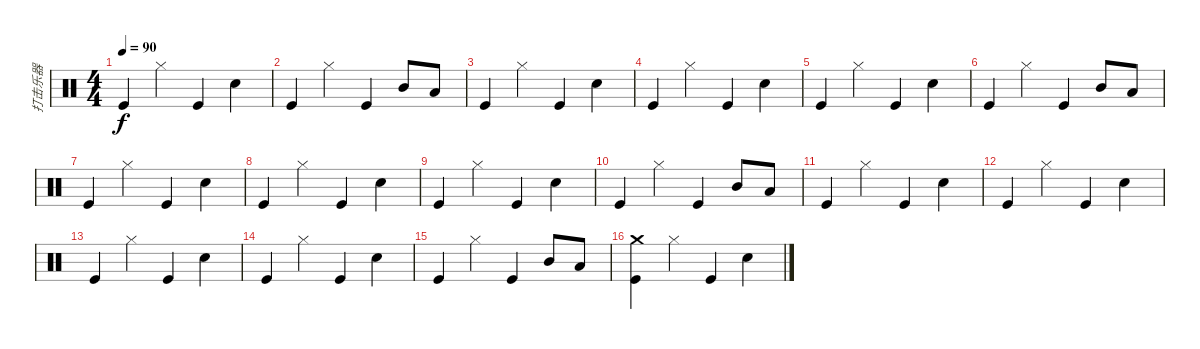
\track ("打击乐器" "打击乐器") {instrument percussion}
\staff {score}
\articulation defaults
\ts (4 4)
\tempo 90
\clef neutral
\ks c "Kick (hit)".4{dy f} "Hi-Hat (closed)".4 "Kick (hit)".4 "Electric Snare (hit)".4
|
"Kick (hit)".4 "Hi-Hat (closed)".4 "Kick (hit)".4 "Mid Tom (hit)".8 "Low Tom (hit)".8 |
"Kick (hit)".4 "Hi-Hat (closed)".4 "Kick (hit)".4 "Electric Snare (hit)".4 |
"Kick (hit)".4 "Hi-Hat (closed)".4 "Kick (hit)".4 "Electric Snare (hit)".4 |
"Kick (hit)".4 "Hi-Hat (closed)".4 "Kick (hit)".4 "Electric Snare (hit)".4 |
"Kick (hit)".4 "Hi-Hat (closed)".4 "Kick (hit)".4 "Mid Tom (hit)".8 "Low Tom (hit)".8 |
"Kick (hit)".4 "Hi-Hat (closed)".4 "Kick (hit)".4 "Electric Snare (hit)".4 |
"Kick (hit)".4 "Hi-Hat (closed)".4 "Kick (hit)".4 "Electric Snare (hit)".4 |
"Kick (hit)".4 "Hi-Hat (closed)".4 "Kick (hit)".4 "Electric Snare (hit)".4 |
"Kick (hit)".4 "Hi-Hat (closed)".4 "Kick (hit)".4 "Mid Tom (hit)".8 "Low Tom (hit)".8 |
"Kick (hit)".4 "Hi-Hat (closed)".4 "Kick (hit)".4 "Electric Snare (hit)".4 |
"Kick (hit)".4 "Hi-Hat (closed)".4 "Kick (hit)".4 "Electric Snare (hit)".4 |
"Kick (hit)".4 "Hi-Hat (closed)".4 "Kick (hit)".4 "Electric Snare (hit)".4 |
"Kick (hit)".4 "Hi-Hat (closed)".4 "Kick (hit)".4 "Electric Snare (hit)".4 |
"Kick (hit)".4 "Hi-Hat (closed)".4 "Kick (hit)".4 "Mid Tom (hit)".8 "Low Tom (hit)".8 |
("Crash medium (hit)" "Kick (hit)").4 "Hi-Hat (closed)".4 "Kick (hit)".4 "Electric Snare (hit)".4
